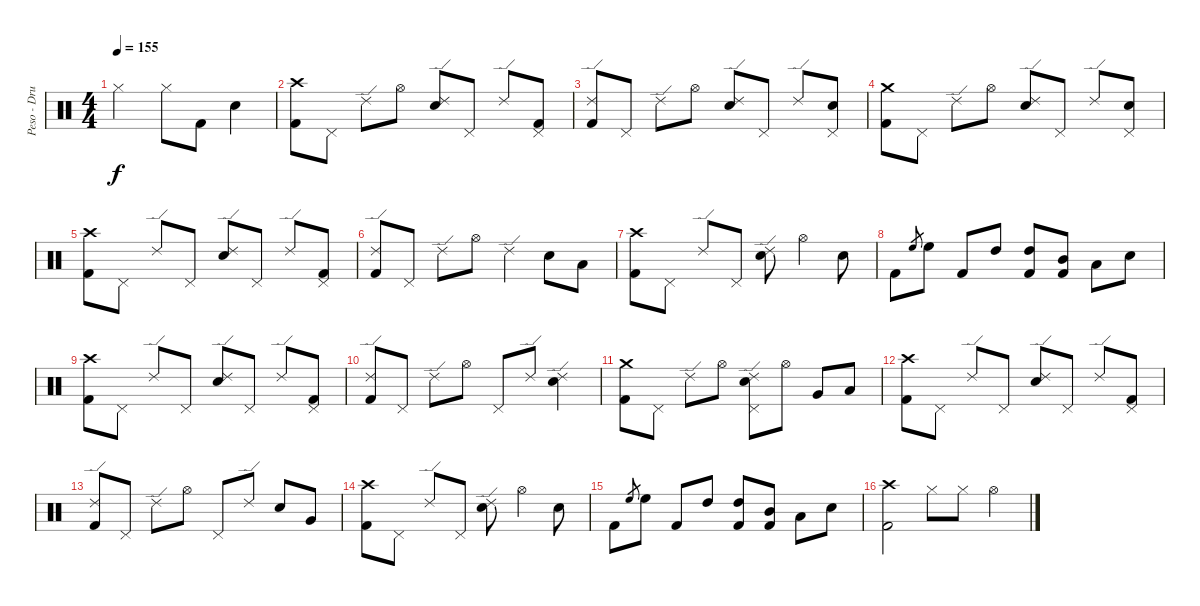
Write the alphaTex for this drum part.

\track ("Peso - Drums" "Peso - Dru") {instrument percussion}
\staff {score}
\articulation defaults
\ts (4 4)
\tempo 155
\clef neutral
\ks c "Hi-Hat (closed)".2{dy f} "Hi-Hat (closed)".8 "Kick (hit) 2".8 "Electric Snare (hit)".4
|
("Crash high (hit)" "Kick (hit) 2").8 "Pedal Hi-Hat (hit)".8 "Ride (edge) 2".8 "Hi-Hat (open)".8 ("Ride (edge) 2" "Electric Snare (hit)").8 "Pedal Hi-Hat (hit)".8 "Ride (edge) 2".8 ("Pedal Hi-Hat (hit)" "Kick (hit) 2").8 |
("Ride (edge) 2" "Kick (hit) 2").8 "Pedal Hi-Hat (hit)".8 "Ride (edge) 2".8 "Hi-Hat (open)".8 ("Ride (edge) 2" "Electric Snare (hit)").8 "Pedal Hi-Hat (hit)".8 "Ride (edge) 2".8 ("Pedal Hi-Hat (hit)" "Electric Snare (hit)").8 |
("Crash medium (hit)" "Kick (hit) 2").8 "Pedal Hi-Hat (hit)".8 "Ride (edge) 2".8 "Hi-Hat (open)".8 ("Ride (edge) 2" "Electric Snare (hit)").8 "Pedal Hi-Hat (hit)".8 "Ride (edge) 2".8 ("Pedal Hi-Hat (hit)" "Electric Snare (hit)").8 |
("Crash high (hit)" "Kick (hit) 2").8 "Pedal Hi-Hat (hit)".8 "Ride (edge) 2".8 "Pedal Hi-Hat (hit)".8 ("Ride (edge) 2" "Electric Snare (hit)").8 "Pedal Hi-Hat (hit)".8 "Ride (edge) 2".8 ("Pedal Hi-Hat (hit)" "Kick (hit) 2").8 |
("Ride (edge) 2" "Kick (hit) 2").8 "Pedal Hi-Hat (hit)".8 "Ride (edge) 2".8 "Hi-Hat (open)".8 "Ride (edge) 2".4 "Electric Snare (hit)".8 "Low Tom (hit)".8 |
("Crash high (hit)" "Kick (hit) 2").8 "Pedal Hi-Hat (hit)".8 "Ride (edge) 2".8 "Pedal Hi-Hat (hit)".8 ("Ride (edge) 2" "Electric Snare (hit)").8 "Hi-Hat (open)".4 "Electric Snare (hit)".8 |
"Kick (hit) 2".8 "High Floor Tom (hit)".8{gr} "High Floor Tom (hit)".8 "Kick (hit) 2".8 "High Tom (hit)".8 ("High Tom (hit)" "Kick (hit) 2").8 ("Mid Tom (hit)" "Kick (hit) 2").8 "Low Tom (hit)".8 "Electric Snare (hit)".8 |
("Crash high (hit)" "Kick (hit) 2").8 "Pedal Hi-Hat (hit)".8 "Ride (edge) 2".8 "Pedal Hi-Hat (hit)".8 ("Ride (edge) 2" "Electric Snare (hit)").8 "Pedal Hi-Hat (hit)".8 "Ride (edge) 2".8 ("Pedal Hi-Hat (hit)" "Kick (hit) 2").8 |
("Ride (edge) 2" "Kick (hit) 2").8 "Pedal Hi-Hat (hit)".8 "Ride (edge) 2".8 "Hi-Hat (open)".8 "Pedal Hi-Hat (hit)".8 "Ride (edge) 2".8 ("Ride (edge) 2" "Electric Snare (hit)").4 |
("Crash medium (hit)" "Kick (hit) 2").8 "Pedal Hi-Hat (hit)".8 "Ride (edge) 2".8 "Hi-Hat (open)".8 ("Pedal Hi-Hat (hit)" "Ride (edge) 2" "Electric Snare (hit)").8 "Hi-Hat (open)".8 "Very Low Tom (hit)".8 "Low Floor Tom (hit)".8 |
("Crash high (hit)" "Kick (hit) 2").8 "Pedal Hi-Hat (hit)".8 "Ride (edge) 2".8 "Pedal Hi-Hat (hit)".8 ("Ride (edge) 2" "Electric Snare (hit)").8 "Pedal Hi-Hat (hit)".8 "Ride (edge) 2".8 ("Pedal Hi-Hat (hit)" "Kick (hit) 2").8 |
("Ride (edge) 2" "Kick (hit) 2").8 "Pedal Hi-Hat (hit)".8 "Ride (edge) 2".8 "Hi-Hat (open)".8 "Pedal Hi-Hat (hit)".8 "Ride (edge) 2".8 "Electric Snare (hit)".8 "Very Low Tom (hit)".8 |
("Crash high (hit)" "Kick (hit) 2").8 "Pedal Hi-Hat (hit)".8 "Ride (edge) 2".8 "Pedal Hi-Hat (hit)".8 ("Ride (edge) 2" "Electric Snare (hit)").8 "Hi-Hat (open)".4 "Electric Snare (hit)".8 |
"Kick (hit) 2".8 "High Floor Tom (hit)".8{gr} "High Floor Tom (hit)".8 "Kick (hit) 2".8 "High Tom (hit)".8 ("High Tom (hit)" "Kick (hit) 2").8 ("Mid Tom (hit)" "Kick (hit) 2").8 "Low Tom (hit)".8 "Electric Snare (hit)".8 |
("Crash high (hit)" "Kick (hit) 2").2 "Hi-Hat (closed)".8 "Hi-Hat (closed)".8 "Hi-Hat (open)".4
